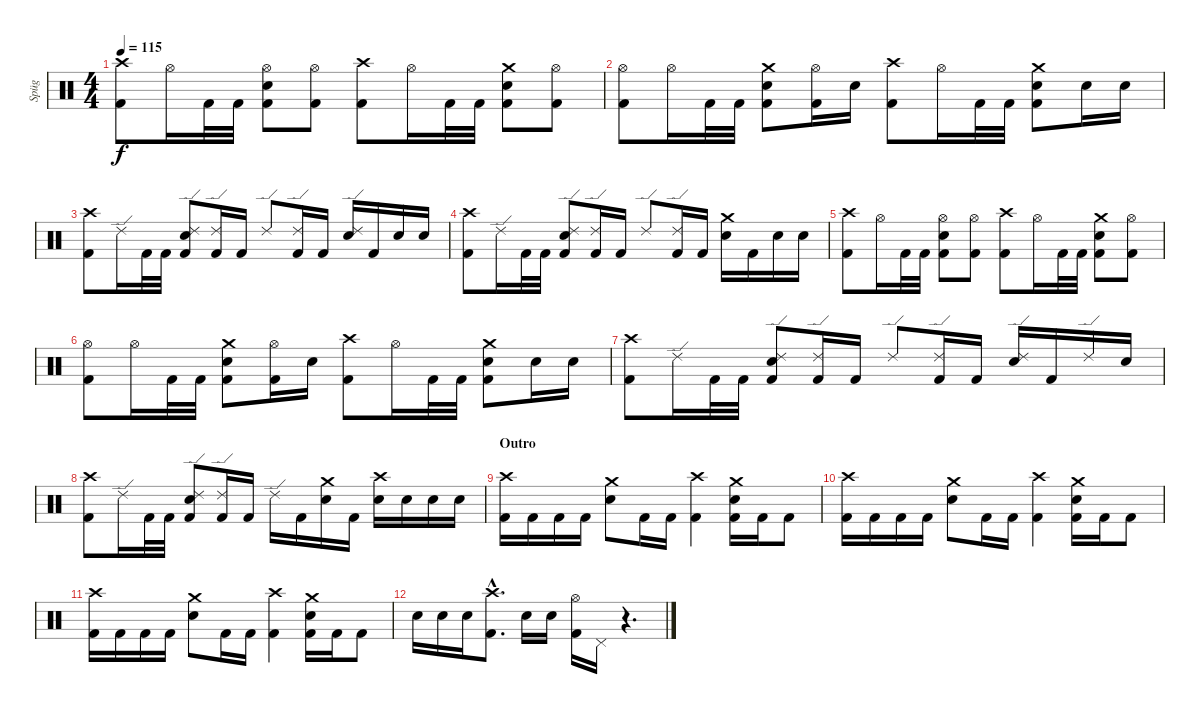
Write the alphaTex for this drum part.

\track ("Spüg" "Spüg") {instrument percussion}
\staff {score}
\articulation defaults
\ts (4 4)
\tempo 115
\clef neutral
\ks c
("Crash high (hit)" "Kick (hit) 2").8{dy f} "Hi-Hat (open)".16 "Kick (hit) 2".32 "Kick (hit) 2".32 ("Hi-Hat (open)" "Electric Snare (hit)" "Kick (hit) 2").8 ("Hi-Hat (open)" "Kick (hit) 2").8 ("Crash high (hit)" "Kick (hit) 2").8 "Hi-Hat (open)".16 "Kick (hit) 2".32 "Kick (hit) 2".32 ("Crash medium (hit)" "Electric Snare (hit)" "Kick (hit) 2").8 ("Hi-Hat (open)" "Kick (hit) 2").8 |
("Hi-Hat (open)" "Kick (hit) 2").8 "Hi-Hat (open)".16 "Kick (hit) 2".32 "Kick (hit) 2".32 ("Crash medium (hit)" "Electric Snare (hit)" "Kick (hit) 2").8 ("Hi-Hat (open)" "Kick (hit) 2").16 "Electric Snare (hit)".16 ("Crash high (hit)" "Kick (hit) 2").8 "Hi-Hat (open)".16 "Kick (hit) 2".32 "Kick (hit) 2".32 ("Crash medium (hit)" "Electric Snare (hit)" "Kick (hit) 2").8 "Electric Snare (hit)".16 "Electric Snare (hit)".16 |
("Crash high (hit)" "Kick (hit) 2").8 "Ride (edge) 2".16 "Kick (hit) 2".32 "Kick (hit) 2".32 ("Ride (edge) 2" "Electric Snare (hit)" "Kick (hit) 2").8 ("Ride (edge) 2" "Kick (hit) 2").16 "Kick (hit) 2".16 "Ride (edge) 2".8 ("Ride (edge) 2" "Kick (hit) 2").16 "Kick (hit) 2".16 ("Ride (edge) 2" "Electric Snare (hit)").16 "Kick (hit) 2".16 "Electric Snare (hit)".16 "Electric Snare (hit)".16 |
("Crash high (hit)" "Kick (hit) 2").8 "Ride (edge) 2".16 "Kick (hit) 2".32 "Kick (hit) 2".32 ("Ride (edge) 2" "Electric Snare (hit)" "Kick (hit) 2").8 ("Ride (edge) 2" "Kick (hit) 2").16 "Kick (hit) 2".16 "Ride (edge) 2".8 ("Ride (edge) 2" "Kick (hit) 2").16 "Kick (hit) 2".16 ("Crash medium (hit)" "Electric Snare (hit)").16 "Kick (hit) 2".16 "Electric Snare (hit)".16 "Electric Snare (hit)".16 |
("Crash high (hit)" "Kick (hit) 2").8 "Hi-Hat (open)".16 "Kick (hit) 2".32 "Kick (hit) 2".32 ("Hi-Hat (open)" "Electric Snare (hit)" "Kick (hit) 2").8 ("Hi-Hat (open)" "Kick (hit) 2").8 ("Crash high (hit)" "Kick (hit) 2").8 "Hi-Hat (open)".16 "Kick (hit) 2".32 "Kick (hit) 2".32 ("Crash medium (hit)" "Electric Snare (hit)" "Kick (hit) 2").8 ("Hi-Hat (open)" "Kick (hit) 2").8 |
("Hi-Hat (open)" "Kick (hit) 2").8 "Hi-Hat (open)".16 "Kick (hit) 2".32 "Kick (hit) 2".32 ("Crash medium (hit)" "Electric Snare (hit)" "Kick (hit) 2").8 ("Hi-Hat (open)" "Kick (hit) 2").16 "Electric Snare (hit)".16 ("Crash high (hit)" "Kick (hit) 2").8 "Hi-Hat (open)".16 "Kick (hit) 2".32 "Kick (hit) 2".32 ("Crash medium (hit)" "Electric Snare (hit)" "Kick (hit) 2").8 "Electric Snare (hit)".16 "Electric Snare (hit)".16 |
("Crash high (hit)" "Kick (hit) 2").8 "Ride (edge) 2".16 "Kick (hit) 2".32 "Kick (hit) 2".32 ("Ride (edge) 2" "Electric Snare (hit)" "Kick (hit) 2").8 ("Ride (edge) 2" "Kick (hit) 2").16 "Kick (hit) 2".16 "Ride (edge) 2".8 ("Ride (edge) 2" "Kick (hit) 2").16 "Kick (hit) 2".16 ("Ride (edge) 2" "Electric Snare (hit)").16 "Kick (hit) 2".16 "Ride (edge) 2".16 "Electric Snare (hit)".16 |
("Crash high (hit)" "Kick (hit) 2").8 "Ride (edge) 2".16 "Kick (hit) 2".32 "Kick (hit) 2".32 ("Ride (edge) 2" "Electric Snare (hit)" "Kick (hit) 2").8 ("Ride (edge) 2" "Kick (hit) 2").16 "Kick (hit) 2".16 "Ride (edge) 2".16 "Kick (hit) 2".16 ("Crash medium (hit)" "Electric Snare (hit)").16 "Kick (hit) 2".16 ("Crash high (hit)" "Electric Snare (hit)").16 "Electric Snare (hit)".16 "Electric Snare (hit)".16 "Electric Snare (hit)".16 |
\section ("" "Outro")
("Crash high (hit)" "Kick (hit) 2").16 "Kick (hit) 2".16 "Kick (hit) 2".16 "Kick (hit) 2".16 ("Crash medium (hit)" "Electric Snare (hit)").8 "Kick (hit) 2".16 "Kick (hit) 2".16 ("Crash high (hit)" "Kick (hit) 2").4 ("Crash medium (hit)" "Electric Snare (hit)" "Kick (hit) 2").16 "Kick (hit) 2".16 "Kick (hit) 2".8 |
("Crash high (hit)" "Kick (hit) 2").16 "Kick (hit) 2".16 "Kick (hit) 2".16 "Kick (hit) 2".16 ("Crash medium (hit)" "Electric Snare (hit)").8 "Kick (hit) 2".16 "Kick (hit) 2".16 ("Crash high (hit)" "Kick (hit) 2").4 ("Crash medium (hit)" "Electric Snare (hit)" "Kick (hit) 2").16 "Kick (hit) 2".16 "Kick (hit) 2".8 |
("Crash high (hit)" "Kick (hit) 2").16 "Kick (hit) 2".16 "Kick (hit) 2".16 "Kick (hit) 2".16 ("Crash medium (hit)" "Electric Snare (hit)").8 "Kick (hit) 2".16 "Kick (hit) 2".16 ("Crash high (hit)" "Kick (hit) 2").4 ("Crash medium (hit)" "Electric Snare (hit)" "Kick (hit) 2").16 "Kick (hit) 2".16 "Kick (hit) 2".8 |
"Electric Snare (hit)".16 "Electric Snare (hit)".16 "Electric Snare (hit)".16 ("Crash high (hit)"{hac} "Kick (hit) 2"{hac}).8{d} "Electric Snare (hit)".16 "Electric Snare (hit)".16 ("Hi-Hat (open)" "Kick (hit) 2").16 "Pedal Hi-Hat (hit)".16 r.4{d}
